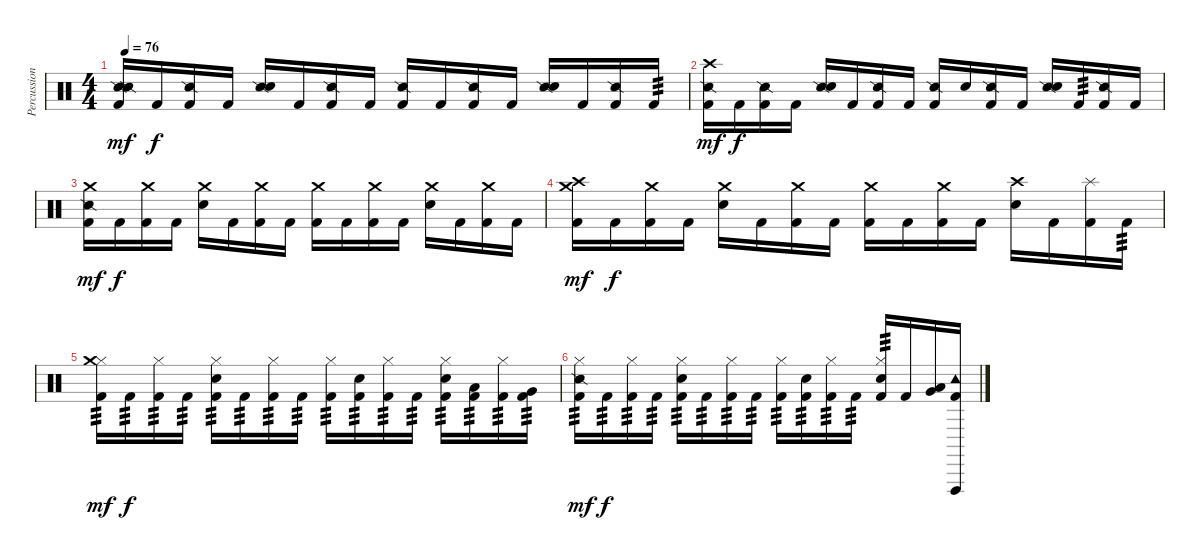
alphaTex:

\track ("Percussion" "Percussion") {instrument percussion}
\staff {score}
\articulation defaults
\ts (4 4)
\tempo 76
\clef neutral
\ks c
("Snare (side stick) 2" "Snare (side stick) 2" "Kick (hit) 2").16{dy mf} "Kick (hit) 2".16{dy f} ("Snare (side stick) 2" "Kick (hit) 2").16 "Kick (hit) 2".16 ("Snare (side stick) 2" "Snare (hit) 2").16 "Kick (hit) 2".16 ("Snare (side stick) 2" "Kick (hit) 2").16 "Kick (hit) 2".16 ("Snare (side stick) 2" "Kick (hit) 2").16 "Kick (hit) 2".16 ("Snare (side stick) 2" "Kick (hit) 2").16 "Kick (hit) 2".16 ("Snare (side stick) 2" "Snare (hit) 2").16 "Kick (hit) 2".16 ("Snare (side stick) 2" "Kick (hit) 2").16 "Kick (hit) 2".16{tp 3} |
("Snare (side stick) 2" "Crash high (hit)" "Kick (hit) 2").16{dy mf} "Kick (hit) 2".16{dy f} ("Snare (side stick) 2" "Kick (hit) 2").16 "Kick (hit) 2".16 ("Snare (side stick) 2" "Snare (hit) 2").16 "Kick (hit) 2".16 ("Snare (side stick) 2" "Kick (hit) 2").16 "Kick (hit) 2".16 ("Snare (side stick) 2" "Kick (hit) 2").16 "Snare (hit) 2".16 ("Snare (side stick) 2" "Kick (hit) 2").16 "Kick (hit) 2".16 ("Snare (side stick) 2" "Snare (hit) 2").16 "Kick (hit) 2".16{tp 3} ("Snare (side stick) 2" "Kick (hit) 2").16 "Kick (hit) 2".16 |
("Crash medium (hit)" "Snare (side stick) 2" "Kick (hit) 2").16{dy mf} "Kick (hit) 2".16{dy f} ("Crash medium (hit)" "Kick (hit) 2").16 "Kick (hit) 2".16 ("Crash medium (hit)" "Snare (hit) 2").16 "Kick (hit) 2".16 ("Crash medium (hit)" "Kick (hit) 2").16 "Kick (hit) 2".16 ("Crash medium (hit)" "Kick (hit) 2").16 "Kick (hit) 2".16 ("Crash medium (hit)" "Kick (hit) 2").16 "Kick (hit) 2".16 ("Crash medium (hit)" "Snare (hit) 2").16 "Kick (hit) 2".16 ("Crash medium (hit)" "Kick (hit) 2").16 "Kick (hit) 2".16 |
("Crash medium (hit)" "Crash high (hit)" "Kick (hit) 2").16{dy mf} "Kick (hit) 2".16{dy f} ("Crash medium (hit)" "Kick (hit) 2").16 "Kick (hit) 2".16 ("Crash medium (hit)" "Snare (hit) 2").16 "Kick (hit) 2".16 ("Crash medium (hit)" "Kick (hit) 2").16 "Kick (hit) 2".16 ("Crash medium (hit)" "Kick (hit) 2").16 "Kick (hit) 2".16 ("Crash medium (hit)" "Kick (hit) 2").16 "Kick (hit) 2".16 ("Crash high (hit)" "Snare (hit) 2").16 "Kick (hit) 2".16 ("Splash (hit)" "Kick (hit) 2").16 "Kick (hit) 2".16{tp 3} |
("Hi-Hat (closed)" "Crash medium (hit)" "Kick (hit) 2").16{tp 3 dy mf} "Kick (hit) 2".16{tp 3 dy f} ("Hi-Hat (closed)" "Kick (hit) 2").16{tp 3} "Kick (hit) 2".16{tp 3} ("Hi-Hat (closed)" "Snare (hit) 2" "Kick (hit) 2").16{tp 3} "Kick (hit) 2".16{tp 3} ("Hi-Hat (closed)" "Kick (hit) 2").16{tp 3} "Kick (hit) 2".16{tp 3} ("Hi-Hat (closed)" "Kick (hit) 2").16{tp 3} ("Snare (hit) 2" "Kick (hit) 2").16{tp 3} ("Hi-Hat (closed)" "Kick (hit) 2").16{tp 3} "Kick (hit) 2".16{tp 3} ("Hi-Hat (closed)" "Snare (hit) 2" "Kick (hit) 2").16{tp 3} ("Low Tom (hit)" "Kick (hit) 2").16{tp 3} ("Hi-Hat (closed)" "Kick (hit) 2").16{tp 3} ("Very Low Tom (hit)" "Kick (hit) 2").16{tp 3} |
("Hi-Hat (closed)" "Snare (side stick) 2" "Kick (hit) 2").16{tp 3 dy mf} "Kick (hit) 2".16{tp 3 dy f} ("Hi-Hat (closed)" "Kick (hit) 2").16{tp 3} "Kick (hit) 2".16{tp 3} ("Hi-Hat (closed)" "Snare (hit) 2" "Kick (hit) 2").16{tp 3} "Kick (hit) 2".16{tp 3} ("Hi-Hat (closed)" "Kick (hit) 2").16{tp 3} "Kick (hit) 2".16{tp 3} ("Hi-Hat (closed)" "Kick (hit) 2").16{tp 3} ("Snare (hit) 2" "Kick (hit) 2").16{tp 3} ("Hi-Hat (closed)" "Kick (hit) 2").16{tp 3} "Kick (hit) 2".16{tp 3} ("Hi-Hat (closed)" "Snare (hit) 2" "Kick (hit) 2").16{tp 3} "Kick (hit) 2".16 ("Low Tom (hit)" "Very Low Tom (hit)").16{bu 60} ("Tambourine (hit)" "Vibraslap (hit)" "Kick (hit) 2").16
